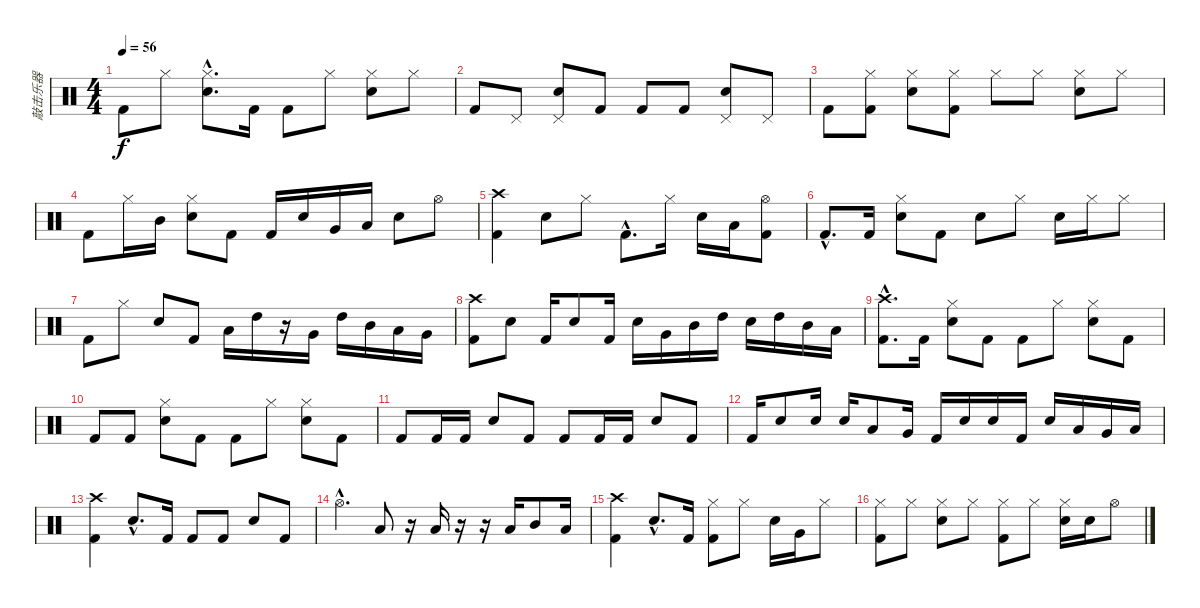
\track ("敲击乐器" "敲击乐器") {instrument percussion}
\staff {score}
\articulation defaults
\ts (4 4)
\tempo 56
\clef neutral
\ks c "Kick (hit) 2".8{dy f} "Hi-Hat (closed)".8
("Hi-Hat (closed)"{hac} "Electric Snare (hit)"{hac}).8{d} "Kick (hit) 2".16 "Kick (hit) 2".8 "Hi-Hat (closed)".8 ("Hi-Hat (closed)" "Electric Snare (hit)").8 "Hi-Hat (closed)".8 |
"Kick (hit) 2".8 "Pedal Hi-Hat (hit)".8 ("Pedal Hi-Hat (hit)" "Electric Snare (hit)").8 "Kick (hit) 2".8 "Kick (hit) 2".8 "Kick (hit) 2".8 ("Pedal Hi-Hat (hit)" "Electric Snare (hit)").8 "Pedal Hi-Hat (hit)".8 |
"Kick (hit) 2".8 ("Hi-Hat (closed)" "Kick (hit) 2").8 ("Electric Snare (hit)" "Hi-Hat (closed)").8 ("Hi-Hat (closed)" "Kick (hit) 2").8 "Hi-Hat (closed)".8 "Hi-Hat (closed)".8 ("Hi-Hat (closed)" "Electric Snare (hit)").8 "Hi-Hat (closed)".8 |
"Kick (hit) 2".8 "Hi-Hat (closed)".16 "Mid Tom (hit)".16 ("Electric Snare (hit)" "Hi-Hat (closed)").8 "Kick (hit) 2".8 "Kick (hit) 2".16 "Electric Snare (hit)".16 "Very Low Tom (hit)".16 "Low Tom (hit)".16 "Electric Snare (hit)".8 "Hi-Hat (open)".8 |
("Crash high (hit)" "Kick (hit) 2").4 "Electric Snare (hit)".8 "Hi-Hat (closed)".8 "Kick (hit) 2"{hac}.8{d} "Hi-Hat (closed)".16 "Electric Snare (hit)".16 "Low Tom (hit)".16 ("Hi-Hat (open)" "Kick (hit) 2").8 |
"Kick (hit) 2"{hac}.8{d} "Kick (hit) 2".16 ("Hi-Hat (closed)" "Electric Snare (hit)").8 "Kick (hit) 2".8 "Electric Snare (hit)".8 "Hi-Hat (closed)".8 "Electric Snare (hit)".16 "Hi-Hat (closed)".16 "Hi-Hat (closed)".8 |
"Kick (hit) 2".8 "Hi-Hat (closed)".8 "Electric Snare (hit)".8 "Kick (hit) 2".8 "Low Floor Tom (hit)".16 "High Tom (hit)".16 r.16 "Very Low Tom (hit)".16 "High Tom (hit)".16 "Mid Tom (hit)".16 "Low Tom (hit)".16 "Very Low Tom (hit)".16 |
("Crash high (hit)" "Kick (hit) 2").8 "Electric Snare (hit)".8 "Kick (hit) 2".16 "Electric Snare (hit)".8 "Kick (hit) 2".16 "Electric Snare (hit)".16 "Very Low Tom (hit)".16 "Mid Tom (hit)".16 "High Tom (hit)".16 "Snare (hit) 2".16 "High Tom (hit)".16 "Mid Tom (hit)".16 "Low Tom (hit)".16 |
("Crash high (hit)"{hac} "Kick (hit) 2"{hac}).8{d} "Kick (hit) 2".16 ("Hi-Hat (closed)" "Electric Snare (hit)").8 "Kick (hit) 2".8 "Kick (hit) 2".8 "Hi-Hat (closed)".8 ("Hi-Hat (closed)" "Electric Snare (hit)").8 "Kick (hit) 2".8 |
"Kick (hit) 2".8 "Kick (hit) 2".8 ("Hi-Hat (closed)" "Electric Snare (hit)").8 "Kick (hit) 2".8 "Kick (hit) 2".8 "Hi-Hat (closed)".8 ("Hi-Hat (closed)" "Electric Snare (hit)").8 "Kick (hit) 2".8 |
"Kick (hit) 2".8 "Kick (hit) 2".16 "Kick (hit) 2".16 "Electric Snare (hit)".8 "Kick (hit) 2".8 "Kick (hit) 2".8 "Kick (hit) 2".16 "Kick (hit) 2".16 "Electric Snare (hit)".8 "Kick (hit) 2".8 |
"Kick (hit) 2".16 "Electric Snare (hit)".8 "Electric Snare (hit)".16 "Electric Snare (hit)".16 "Low Tom (hit)".8 "Very Low Tom (hit)".16 "Kick (hit) 2".16 "Electric Snare (hit)".16 "Electric Snare (hit)".16 "Kick (hit) 2".16 "Electric Snare (hit)".16 "Low Tom (hit)".16 "Very Low Tom (hit)".16 "Low Floor Tom (hit)".16 |
("Crash high (hit)" "Kick (hit) 2").4 "Electric Snare (hit)"{hac}.8{d} "Kick (hit) 2".16 "Kick (hit) 2".8 "Kick (hit) 2".8 "Electric Snare (hit)".8 "Kick (hit) 2".8 |
"Hi-Hat (open)"{hac}.4{d} "Low Tom (hit)".8 r.16 "Low Floor Tom (hit)".16 r.16 r.16 "Low Floor Tom (hit)".16 "Mid Tom (hit)".8 "Low Floor Tom (hit)".16 |
("Crash high (hit)" "Kick (hit) 2").4 "Electric Snare (hit)"{hac}.8{d} "Kick (hit) 2".16 ("Hi-Hat (closed)" "Kick (hit) 2").8 "Hi-Hat (closed)".8 "Electric Snare (hit)".16 "Very Low Tom (hit)".16 "Hi-Hat (closed)".8 |
("Hi-Hat (closed)" "Kick (hit) 2").8 "Hi-Hat (closed)".8 ("Hi-Hat (closed)" "Electric Snare (hit)").8 "Hi-Hat (closed)".8 ("Hi-Hat (closed)" "Kick (hit) 2").8 "Hi-Hat (closed)".8 ("Hi-Hat (closed)" "Electric Snare (hit)").16 "Electric Snare (hit)".16 "Hi-Hat (open)".8
